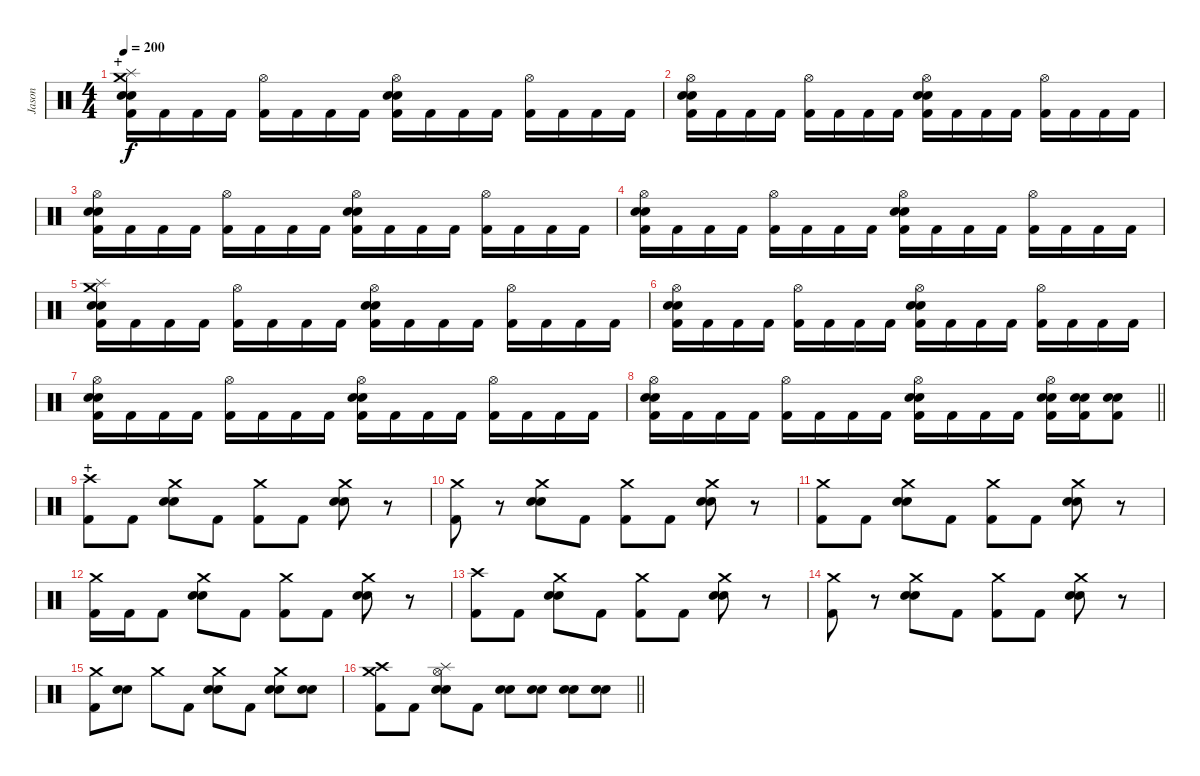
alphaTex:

\track ("Jason" "Jason") {instrument percussion}
\staff {score}
\articulation defaults
\ts (4 4)
\section ("" "+")
\tempo 200
\clef neutral
\ks c
("Crash medium (hit)" "Splash (hit)" "Electric Snare (hit)" "Snare (hit) 2" "Kick (hit) 2").16{dy f} "Kick (hit) 2".16 "Kick (hit) 2".16 "Kick (hit) 2".16 ("Hi-Hat (open)" "Kick (hit) 2").16 "Kick (hit) 2".16 "Kick (hit) 2".16 "Kick (hit) 2".16 ("Hi-Hat (open)" "Electric Snare (hit)" "Snare (hit) 2" "Kick (hit) 2").16 "Kick (hit) 2".16 "Kick (hit) 2".16 "Kick (hit) 2".16 ("Hi-Hat (open)" "Kick (hit) 2").16 "Kick (hit) 2".16 "Kick (hit) 2".16 "Kick (hit) 2".16 |
("Hi-Hat (open)" "Electric Snare (hit)" "Snare (hit) 2" "Kick (hit) 2").16 "Kick (hit) 2".16 "Kick (hit) 2".16 "Kick (hit) 2".16 ("Hi-Hat (open)" "Kick (hit) 2").16 "Kick (hit) 2".16 "Kick (hit) 2".16 "Kick (hit) 2".16 ("Hi-Hat (open)" "Electric Snare (hit)" "Snare (hit) 2" "Kick (hit) 2").16 "Kick (hit) 2".16 "Kick (hit) 2".16 "Kick (hit) 2".16 ("Hi-Hat (open)" "Kick (hit) 2").16 "Kick (hit) 2".16 "Kick (hit) 2".16 "Kick (hit) 2".16 |
("Hi-Hat (open)" "Electric Snare (hit)" "Snare (hit) 2" "Kick (hit) 2").16 "Kick (hit) 2".16 "Kick (hit) 2".16 "Kick (hit) 2".16 ("Hi-Hat (open)" "Kick (hit) 2").16 "Kick (hit) 2".16 "Kick (hit) 2".16 "Kick (hit) 2".16 ("Hi-Hat (open)" "Electric Snare (hit)" "Snare (hit) 2" "Kick (hit) 2").16 "Kick (hit) 2".16 "Kick (hit) 2".16 "Kick (hit) 2".16 ("Hi-Hat (open)" "Kick (hit) 2").16 "Kick (hit) 2".16 "Kick (hit) 2".16 "Kick (hit) 2".16 |
("Hi-Hat (open)" "Electric Snare (hit)" "Snare (hit) 2" "Kick (hit) 2").16 "Kick (hit) 2".16 "Kick (hit) 2".16 "Kick (hit) 2".16 ("Hi-Hat (open)" "Kick (hit) 2").16 "Kick (hit) 2".16 "Kick (hit) 2".16 "Kick (hit) 2".16 ("Hi-Hat (open)" "Electric Snare (hit)" "Snare (hit) 2" "Kick (hit) 2").16 "Kick (hit) 2".16 "Kick (hit) 2".16 "Kick (hit) 2".16 ("Hi-Hat (open)" "Kick (hit) 2").16 "Kick (hit) 2".16 "Kick (hit) 2".16 "Kick (hit) 2".16 |
("Crash medium (hit)" "Splash (hit)" "Electric Snare (hit)" "Snare (hit) 2" "Kick (hit) 2").16 "Kick (hit) 2".16 "Kick (hit) 2".16 "Kick (hit) 2".16 ("Hi-Hat (open)" "Kick (hit) 2").16 "Kick (hit) 2".16 "Kick (hit) 2".16 "Kick (hit) 2".16 ("Hi-Hat (open)" "Electric Snare (hit)" "Snare (hit) 2" "Kick (hit) 2").16 "Kick (hit) 2".16 "Kick (hit) 2".16 "Kick (hit) 2".16 ("Hi-Hat (open)" "Kick (hit) 2").16 "Kick (hit) 2".16 "Kick (hit) 2".16 "Kick (hit) 2".16 |
("Hi-Hat (open)" "Electric Snare (hit)" "Snare (hit) 2" "Kick (hit) 2").16 "Kick (hit) 2".16 "Kick (hit) 2".16 "Kick (hit) 2".16 ("Hi-Hat (open)" "Kick (hit) 2").16 "Kick (hit) 2".16 "Kick (hit) 2".16 "Kick (hit) 2".16 ("Hi-Hat (open)" "Electric Snare (hit)" "Snare (hit) 2" "Kick (hit) 2").16 "Kick (hit) 2".16 "Kick (hit) 2".16 "Kick (hit) 2".16 ("Hi-Hat (open)" "Kick (hit) 2").16 "Kick (hit) 2".16 "Kick (hit) 2".16 "Kick (hit) 2".16 |
("Hi-Hat (open)" "Electric Snare (hit)" "Snare (hit) 2" "Kick (hit) 2").16 "Kick (hit) 2".16 "Kick (hit) 2".16 "Kick (hit) 2".16 ("Hi-Hat (open)" "Kick (hit) 2").16 "Kick (hit) 2".16 "Kick (hit) 2".16 "Kick (hit) 2".16 ("Hi-Hat (open)" "Electric Snare (hit)" "Snare (hit) 2" "Kick (hit) 2").16 "Kick (hit) 2".16 "Kick (hit) 2".16 "Kick (hit) 2".16 ("Hi-Hat (open)" "Kick (hit) 2").16 "Kick (hit) 2".16 "Kick (hit) 2".16 "Kick (hit) 2".16 |
\barLineRight lightlight
("Hi-Hat (open)" "Electric Snare (hit)" "Snare (hit) 2" "Kick (hit) 2").16 "Kick (hit) 2".16 "Kick (hit) 2".16 "Kick (hit) 2".16 ("Hi-Hat (open)" "Kick (hit) 2").16 "Kick (hit) 2".16 "Kick (hit) 2".16 "Kick (hit) 2".16 ("Hi-Hat (open)" "Electric Snare (hit)" "Snare (hit) 2" "Kick (hit) 2").16 "Kick (hit) 2".16 "Kick (hit) 2".16 "Kick (hit) 2".16 ("Hi-Hat (open)" "Electric Snare (hit)" "Snare (hit) 2" "Kick (hit) 2").16 ("Electric Snare (hit)" "Snare (hit) 2" "Kick (hit) 2").16 ("Electric Snare (hit)" "Snare (hit) 2" "Kick (hit) 2").8 |
\section ("" "+")
("Crash high (hit)" "Kick (hit) 2").8 "Kick (hit) 2".8 ("Crash medium (hit)" "Electric Snare (hit)" "Snare (hit) 2").8 "Kick (hit) 2".8 ("Crash medium (hit)" "Kick (hit) 2").8 "Kick (hit) 2".8 ("Crash medium (hit)" "Electric Snare (hit)" "Snare (hit) 2").8 r.8 |
("Crash medium (hit)" "Kick (hit) 2").8 r.8 ("Crash medium (hit)" "Electric Snare (hit)" "Snare (hit) 2").8 "Kick (hit) 2".8 ("Crash medium (hit)" "Kick (hit) 2").8 "Kick (hit) 2".8 ("Crash medium (hit)" "Electric Snare (hit)" "Snare (hit) 2").8 r.8 |
("Crash medium (hit)" "Kick (hit) 2").8 "Kick (hit) 2".8 ("Crash medium (hit)" "Electric Snare (hit)" "Snare (hit) 2").8 "Kick (hit) 2".8 ("Crash medium (hit)" "Kick (hit) 2").8 "Kick (hit) 2".8 ("Crash medium (hit)" "Electric Snare (hit)" "Snare (hit) 2").8 r.8 |
("Crash medium (hit)" "Kick (hit) 2").16 "Kick (hit) 2".16 "Kick (hit) 2".8 ("Crash medium (hit)" "Electric Snare (hit)" "Snare (hit) 2").8 "Kick (hit) 2".8 ("Crash medium (hit)" "Kick (hit) 2").8 "Kick (hit) 2".8 ("Crash medium (hit)" "Electric Snare (hit)" "Snare (hit) 2").8 r.8 |
("Crash high (hit)" "Kick (hit) 2").8 "Kick (hit) 2".8 ("Crash medium (hit)" "Electric Snare (hit)" "Snare (hit) 2").8 "Kick (hit) 2".8 ("Crash medium (hit)" "Kick (hit) 2").8 "Kick (hit) 2".8 ("Crash medium (hit)" "Electric Snare (hit)" "Snare (hit) 2").8 r.8 |
("Crash medium (hit)" "Kick (hit) 2").8 r.8 ("Crash medium (hit)" "Electric Snare (hit)" "Snare (hit) 2").8 "Kick (hit) 2".8 ("Crash medium (hit)" "Kick (hit) 2").8 "Kick (hit) 2".8 ("Crash medium (hit)" "Electric Snare (hit)" "Snare (hit) 2").8 r.8 |
("Crash medium (hit)" "Kick (hit) 2").8 ("Electric Snare (hit)" "Snare (hit) 2").8 "Crash medium (hit)".8 "Kick (hit) 2".8 ("Crash medium (hit)" "Electric Snare (hit)" "Snare (hit) 2").8 "Kick (hit) 2".8 ("Crash medium (hit)" "Electric Snare (hit)" "Snare (hit) 2").8 ("Electric Snare (hit)" "Snare (hit) 2").8 |
\barLineRight lightlight
("Crash medium (hit)" "Crash high (hit)" "Kick (hit) 2").8 "Kick (hit) 2".8 ("Splash (hit)" "Hi-Hat (open)" "Electric Snare (hit)" "Snare (hit) 2").8 "Kick (hit) 2".8 ("Electric Snare (hit)" "Snare (hit) 2").8 ("Electric Snare (hit)" "Snare (hit) 2").8 ("Electric Snare (hit)" "Snare (hit) 2").8 ("Electric Snare (hit)" "Snare (hit) 2").8
